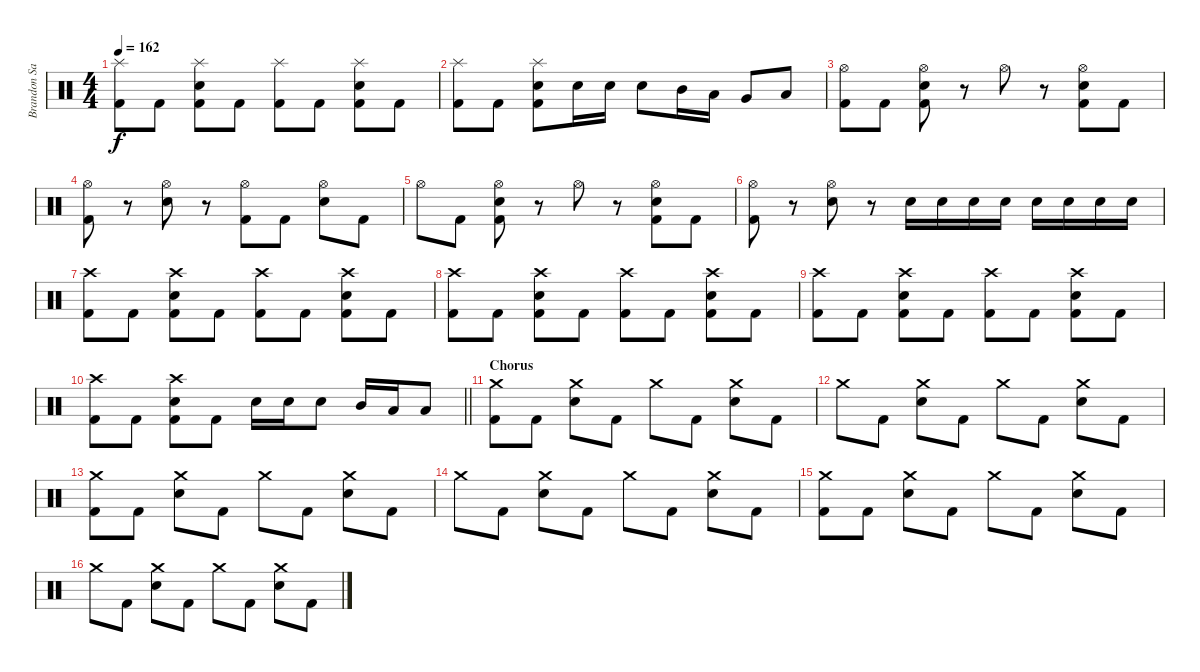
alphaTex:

\track ("Brandon Saller" "Brandon Sa") {instrument percussion}
\staff {score}
\articulation defaults
\ts (4 4)
\tempo 162
\clef neutral
\ks c
("Splash (hit)" "Kick (hit) 2").8{dy f} "Kick (hit) 2".8 ("Splash (hit)" "Electric Snare (hit)" "Kick (hit) 2").8 "Kick (hit) 2".8 ("Splash (hit)" "Kick (hit) 2").8 "Kick (hit) 2".8 ("Splash (hit)" "Electric Snare (hit)" "Kick (hit) 2").8 "Kick (hit) 2".8 |
("Splash (hit)" "Kick (hit) 2").8 "Kick (hit) 2".8 ("Splash (hit)" "Electric Snare (hit)" "Kick (hit) 2").8 "Electric Snare (hit)".16 "Electric Snare (hit)".16 "Electric Snare (hit)".8 "Mid Tom (hit)".16 "Low Tom (hit)".16 "Very Low Tom (hit)".8 "Low Floor Tom (hit)".8 |
("Hi-Hat (open)" "Kick (hit) 2").8 "Kick (hit) 2".8 ("Hi-Hat (open)" "Electric Snare (hit)" "Kick (hit) 2").8 r.8 "Hi-Hat (open)".8 r.8 ("Hi-Hat (open)" "Electric Snare (hit)" "Kick (hit) 2").8 "Kick (hit) 2".8 |
("Hi-Hat (open)" "Kick (hit) 2").8 r.8 ("Hi-Hat (open)" "Electric Snare (hit)").8 r.8 ("Hi-Hat (open)" "Kick (hit) 2").8 "Kick (hit) 2".8 ("Hi-Hat (open)" "Electric Snare (hit)").8 "Kick (hit) 2".8 |
"Hi-Hat (open)".8 "Kick (hit) 2".8 ("Hi-Hat (open)" "Electric Snare (hit)" "Kick (hit) 2").8 r.8 "Hi-Hat (open)".8 r.8 ("Hi-Hat (open)" "Electric Snare (hit)" "Kick (hit) 2").8 "Kick (hit) 2".8 |
("Hi-Hat (open)" "Kick (hit) 2").8 r.8 ("Hi-Hat (open)" "Electric Snare (hit)").8 r.8 "Electric Snare (hit)".16 "Electric Snare (hit)".16 "Electric Snare (hit)".16 "Electric Snare (hit)".16 "Electric Snare (hit)".16 "Electric Snare (hit)".16 "Electric Snare (hit)".16 "Electric Snare (hit)".16 |
("Crash high (hit)" "Kick (hit) 2").8 "Kick (hit) 2".8 ("Crash high (hit)" "Electric Snare (hit)" "Kick (hit) 2").8 "Kick (hit) 2".8 ("Crash high (hit)" "Kick (hit) 2").8 "Kick (hit) 2".8 ("Crash high (hit)" "Electric Snare (hit)" "Kick (hit) 2").8 "Kick (hit) 2".8 |
("Crash high (hit)" "Kick (hit) 2").8 "Kick (hit) 2".8 ("Crash high (hit)" "Electric Snare (hit)" "Kick (hit) 2").8 "Kick (hit) 2".8 ("Crash high (hit)" "Kick (hit) 2").8 "Kick (hit) 2".8 ("Crash high (hit)" "Electric Snare (hit)" "Kick (hit) 2").8 "Kick (hit) 2".8 |
("Crash high (hit)" "Kick (hit) 2").8 "Kick (hit) 2".8 ("Crash high (hit)" "Electric Snare (hit)" "Kick (hit) 2").8 "Kick (hit) 2".8 ("Crash high (hit)" "Kick (hit) 2").8 "Kick (hit) 2".8 ("Crash high (hit)" "Electric Snare (hit)" "Kick (hit) 2").8 "Kick (hit) 2".8 |
\barLineRight lightlight
("Crash high (hit)" "Kick (hit) 2").8 "Kick (hit) 2".8 ("Crash high (hit)" "Electric Snare (hit)" "Kick (hit) 2").8 "Kick (hit) 2".8 "Electric Snare (hit)".16 "Electric Snare (hit)".16 "Electric Snare (hit)".8 "Mid Tom (hit)".16 "Low Tom (hit)".16 "Low Floor Tom (hit)".8 |
\section ("" "Chorus")
("Crash medium (hit)" "Kick (hit) 2").8 "Kick (hit) 2".8 ("Crash medium (hit)" "Electric Snare (hit)").8 "Kick (hit) 2".8 "Crash medium (hit)".8 "Kick (hit) 2".8 ("Crash medium (hit)" "Electric Snare (hit)").8 "Kick (hit) 2".8 |
"Crash medium (hit)".8 "Kick (hit) 2".8 ("Crash medium (hit)" "Electric Snare (hit)").8 "Kick (hit) 2".8 "Crash medium (hit)".8 "Kick (hit) 2".8 ("Crash medium (hit)" "Electric Snare (hit)").8 "Kick (hit) 2".8 |
("Crash medium (hit)" "Kick (hit) 2").8 "Kick (hit) 2".8 ("Crash medium (hit)" "Electric Snare (hit)").8 "Kick (hit) 2".8 "Crash medium (hit)".8 "Kick (hit) 2".8 ("Crash medium (hit)" "Electric Snare (hit)").8 "Kick (hit) 2".8 |
"Crash medium (hit)".8 "Kick (hit) 2".8 ("Crash medium (hit)" "Electric Snare (hit)").8 "Kick (hit) 2".8 "Crash medium (hit)".8 "Kick (hit) 2".8 ("Crash medium (hit)" "Electric Snare (hit)").8 "Kick (hit) 2".8 |
("Crash medium (hit)" "Kick (hit) 2").8 "Kick (hit) 2".8 ("Crash medium (hit)" "Electric Snare (hit)").8 "Kick (hit) 2".8 "Crash medium (hit)".8 "Kick (hit) 2".8 ("Crash medium (hit)" "Electric Snare (hit)").8 "Kick (hit) 2".8 |
"Crash medium (hit)".8 "Kick (hit) 2".8 ("Crash medium (hit)" "Electric Snare (hit)").8 "Kick (hit) 2".8 "Crash medium (hit)".8 "Kick (hit) 2".8 ("Crash medium (hit)" "Electric Snare (hit)").8 "Kick (hit) 2".8
